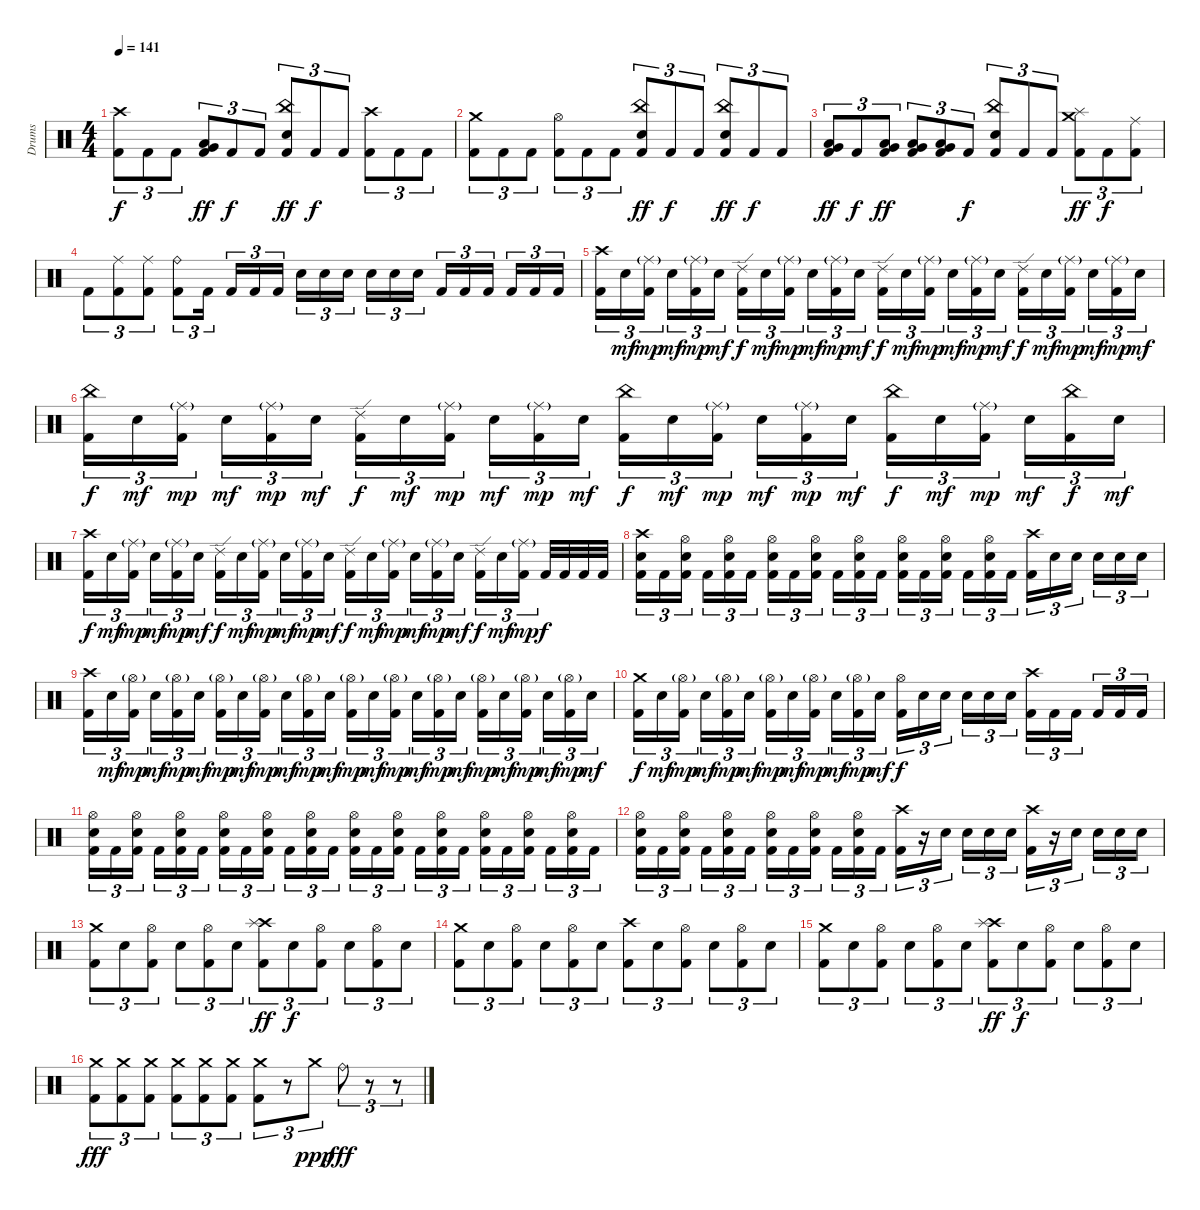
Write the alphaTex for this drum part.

\track ("Drums" "Drums") {instrument percussion}
\staff {score}
\articulation defaults
\ts (4 4)
\tempo 141
\clef neutral
\ks c
("Crash high (hit)" "Kick (hit) 2").8{tu (3 2) dy f} "Kick (hit) 2".8{tu (3 2)} "Kick (hit) 2".8{tu (3 2)} ("Very Low Tom (hit)" "Low Tom (hit)" "Kick (hit) 2").8{tu (3 2) dy ff} "Kick (hit) 2".8{tu (3 2) dy f} "Kick (hit) 2".8{tu (3 2)} ("China (hit)" "Electric Snare (hit)" "Kick (hit) 2").8{tu (3 2) dy ff} "Kick (hit) 2".8{tu (3 2) dy f} "Kick (hit) 2".8{tu (3 2)} ("Crash high (hit)" "Kick (hit) 2").8{tu (3 2)} "Kick (hit) 2".8{tu (3 2)} "Kick (hit) 2".8{tu (3 2)} |
("Crash medium (hit)" "Kick (hit) 2").8{tu (3 2)} "Kick (hit) 2".8{tu (3 2)} "Kick (hit) 2".8{tu (3 2)} ("Hi-Hat (open)" "Kick (hit) 2").8{tu (3 2)} "Kick (hit) 2".8{tu (3 2)} "Kick (hit) 2".8{tu (3 2)} ("China (hit)" "Electric Snare (hit)" "Kick (hit) 2").8{tu (3 2) dy ff} "Kick (hit) 2".8{tu (3 2) dy f} "Kick (hit) 2".8{tu (3 2)} ("China (hit)" "Electric Snare (hit)" "Kick (hit) 2").8{tu (3 2) dy ff} "Kick (hit) 2".8{tu (3 2) dy f} "Kick (hit) 2".8{tu (3 2)} |
("Very Low Tom (hit)" "Low Tom (hit)" "Kick (hit) 2").8{tu (3 2) dy ff} "Kick (hit) 2".8{tu (3 2) dy f} ("Low Floor Tom (hit)" "Very Low Tom (hit)" "Kick (hit) 2").8{tu (3 2) dy ff} ("Low Floor Tom (hit)" "Very Low Tom (hit)" "Kick (hit) 2").8{tu (3 2)} ("Low Floor Tom (hit)" "Very Low Tom (hit)" "Kick (hit) 2").8{tu (3 2)} "Kick (hit) 2".8{tu (3 2) dy f} ("China (hit)" "Electric Snare (hit)" "Kick (hit) 2").8{tu (3 2)} "Kick (hit) 2".8{tu (3 2)} "Kick (hit) 2".8{tu (3 2)} ("Crash medium (hit)" "Splash (hit)" "Kick (hit) 2").8{tu (3 2) dy ff} "Kick (hit) 2".8{tu (3 2) dy f} ("Ride (middle)" "Kick (hit) 2").8{tu (3 2)} |
"Kick (hit) 2".8{tu (3 2)} ("Ride (middle)" "Kick (hit) 2").8{tu (3 2)} ("Ride (middle)" "Kick (hit) 2").8{tu (3 2)} ("Ride (bell)" "Kick (hit) 2").8{tu (3 2)} "Kick (hit) 2".16{tu (3 2)} "Kick (hit) 2".16{tu (3 2)} "Kick (hit) 2".16{tu (3 2)} "Kick (hit) 2".16{tu (3 2)} "Electric Snare (hit)".16{tu (3 2)} "Electric Snare (hit)".16{tu (3 2)} "Electric Snare (hit)".16{tu (3 2)} "Electric Snare (hit)".16{tu (3 2)} "Electric Snare (hit)".16{tu (3 2)} "Electric Snare (hit)".16{tu (3 2)} "Kick (hit) 2".16{tu (3 2)} "Kick (hit) 2".16{tu (3 2)} "Kick (hit) 2".16{tu (3 2)} "Kick (hit) 2".16{tu (3 2)} "Kick (hit) 2".16{tu (3 2)} "Kick (hit) 2".16{tu (3 2)} |
("Crash high (hit)" "Kick (hit) 2").16{tu (3 2)} "Electric Snare (hit)".16{tu (3 2) dy mf} ("Ride (middle)"{g} "Kick (hit) 2").16{tu (3 2) dy mp} "Electric Snare (hit)".16{tu (3 2) dy mf} ("Ride (middle)"{g} "Kick (hit) 2").16{tu (3 2) dy mp} "Electric Snare (hit)".16{tu (3 2) dy mf} ("Ride (edge) 2" "Kick (hit) 2").16{tu (3 2) dy f} "Electric Snare (hit)".16{tu (3 2) dy mf} ("Ride (middle)"{g} "Kick (hit) 2").16{tu (3 2) dy mp} "Electric Snare (hit)".16{tu (3 2) dy mf} ("Ride (middle)"{g} "Kick (hit) 2").16{tu (3 2) dy mp} "Electric Snare (hit)".16{tu (3 2) dy mf} ("Ride (edge) 2" "Kick (hit) 2").16{tu (3 2) dy f} "Electric Snare (hit)".16{tu (3 2) dy mf} ("Ride (middle)"{g} "Kick (hit) 2").16{tu (3 2) dy mp} "Electric Snare (hit)".16{tu (3 2) dy mf} ("Ride (middle)"{g} "Kick (hit) 2").16{tu (3 2) dy mp} "Electric Snare (hit)".16{tu (3 2) dy mf} ("Ride (edge) 2" "Kick (hit) 2").16{tu (3 2) dy f} "Electric Snare (hit)".16{tu (3 2) dy mf} ("Ride (middle)"{g} "Kick (hit) 2").16{tu (3 2) dy mp} "Electric Snare (hit)".16{tu (3 2) dy mf} ("Ride (middle)"{g} "Kick (hit) 2").16{tu (3 2) dy mp} "Electric Snare (hit)".16{tu (3 2) dy mf} |
("China (hit)" "Kick (hit) 2").16{tu (3 2) dy f} "Electric Snare (hit)".16{tu (3 2) dy mf} ("Ride (middle)"{g} "Kick (hit) 2").16{tu (3 2) dy mp} "Electric Snare (hit)".16{tu (3 2) dy mf} ("Ride (middle)"{g} "Kick (hit) 2").16{tu (3 2) dy mp} "Electric Snare (hit)".16{tu (3 2) dy mf} ("Ride (edge) 2" "Kick (hit) 2").16{tu (3 2) dy f} "Electric Snare (hit)".16{tu (3 2) dy mf} ("Ride (middle)"{g} "Kick (hit) 2").16{tu (3 2) dy mp} "Electric Snare (hit)".16{tu (3 2) dy mf} ("Ride (middle)"{g} "Kick (hit) 2").16{tu (3 2) dy mp} "Electric Snare (hit)".16{tu (3 2) dy mf} ("China (hit)" "Kick (hit) 2").16{tu (3 2) dy f} "Electric Snare (hit)".16{tu (3 2) dy mf} ("Ride (middle)"{g} "Kick (hit) 2").16{tu (3 2) dy mp} "Electric Snare (hit)".16{tu (3 2) dy mf} ("Ride (middle)"{g} "Kick (hit) 2").16{tu (3 2) dy mp} "Electric Snare (hit)".16{tu (3 2) dy mf} ("China (hit)" "Kick (hit) 2").16{tu (3 2) dy f} "Electric Snare (hit)".16{tu (3 2) dy mf} ("Ride (middle)"{g} "Kick (hit) 2").16{tu (3 2) dy mp} "Electric Snare (hit)".16{tu (3 2) dy mf} ("China (hit)" "Kick (hit) 2").16{tu (3 2) dy f} "Electric Snare (hit)".16{tu (3 2) dy mf} |
("Crash high (hit)" "Kick (hit) 2").16{tu (3 2) dy f} "Electric Snare (hit)".16{tu (3 2) dy mf} ("Ride (middle)"{g} "Kick (hit) 2").16{tu (3 2) dy mp} "Electric Snare (hit)".16{tu (3 2) dy mf} ("Ride (middle)"{g} "Kick (hit) 2").16{tu (3 2) dy mp} "Electric Snare (hit)".16{tu (3 2) dy mf} ("Ride (edge) 2" "Kick (hit) 2").16{tu (3 2) dy f} "Electric Snare (hit)".16{tu (3 2) dy mf} ("Ride (middle)"{g} "Kick (hit) 2").16{tu (3 2) dy mp} "Electric Snare (hit)".16{tu (3 2) dy mf} ("Ride (middle)"{g} "Kick (hit) 2").16{tu (3 2) dy mp} "Electric Snare (hit)".16{tu (3 2) dy mf} ("Ride (edge) 2" "Kick (hit) 2").16{tu (3 2) dy f} "Electric Snare (hit)".16{tu (3 2) dy mf} ("Ride (middle)"{g} "Kick (hit) 2").16{tu (3 2) dy mp} "Electric Snare (hit)".16{tu (3 2) dy mf} ("Ride (middle)"{g} "Kick (hit) 2").16{tu (3 2) dy mp} "Electric Snare (hit)".16{tu (3 2) dy mf} ("Ride (edge) 2" "Kick (hit) 2").16{tu (3 2) dy f} "Electric Snare (hit)".16{tu (3 2) dy mf} ("Ride (middle)"{g} "Kick (hit) 2").16{tu (3 2) dy mp} "Kick (hit) 2".32{dy f} "Kick (hit) 2".32 "Kick (hit) 2".32 "Kick (hit) 2".32 |
("Crash high (hit)" "Electric Snare (hit)" "Kick (hit) 2").16{tu (3 2)} "Kick (hit) 2".16{tu (3 2)} ("Hi-Hat (open)" "Electric Snare (hit)" "Kick (hit) 2").16{tu (3 2)} "Kick (hit) 2".16{tu (3 2)} ("Hi-Hat (open)" "Electric Snare (hit)" "Kick (hit) 2").16{tu (3 2)} "Kick (hit) 2".16{tu (3 2)} ("Hi-Hat (open)" "Electric Snare (hit)" "Kick (hit) 2").16{tu (3 2)} "Kick (hit) 2".16{tu (3 2)} ("Hi-Hat (open)" "Electric Snare (hit)" "Kick (hit) 2").16{tu (3 2)} "Kick (hit) 2".16{tu (3 2)} ("Hi-Hat (open)" "Electric Snare (hit)" "Kick (hit) 2").16{tu (3 2)} "Kick (hit) 2".16{tu (3 2)} ("Hi-Hat (open)" "Electric Snare (hit)" "Kick (hit) 2").16{tu (3 2)} "Kick (hit) 2".16{tu (3 2)} ("Hi-Hat (open)" "Electric Snare (hit)" "Kick (hit) 2").16{tu (3 2)} "Kick (hit) 2".16{tu (3 2)} ("Hi-Hat (open)" "Electric Snare (hit)" "Kick (hit) 2").16{tu (3 2)} "Kick (hit) 2".16{tu (3 2)} ("Crash high (hit)" "Kick (hit) 2").16{tu (3 2)} "Electric Snare (hit)".16{tu (3 2)} "Electric Snare (hit)".16{tu (3 2)} "Electric Snare (hit)".16{tu (3 2)} "Electric Snare (hit)".16{tu (3 2)} "Electric Snare (hit)".16{tu (3 2)} |
("Crash high (hit)" "Kick (hit) 2").16{tu (3 2)} "Electric Snare (hit)".16{tu (3 2) dy mf} ("Hi-Hat (open)"{g} "Kick (hit) 2").16{tu (3 2) dy mp} "Electric Snare (hit)".16{tu (3 2) dy mf} ("Hi-Hat (open)"{g} "Kick (hit) 2").16{tu (3 2) dy mp} "Electric Snare (hit)".16{tu (3 2) dy mf} ("Hi-Hat (open)"{g} "Kick (hit) 2").16{tu (3 2) dy mp} "Electric Snare (hit)".16{tu (3 2) dy mf} ("Hi-Hat (open)"{g} "Kick (hit) 2").16{tu (3 2) dy mp} "Electric Snare (hit)".16{tu (3 2) dy mf} ("Hi-Hat (open)"{g} "Kick (hit) 2").16{tu (3 2) dy mp} "Electric Snare (hit)".16{tu (3 2) dy mf} ("Hi-Hat (open)"{g} "Kick (hit) 2").16{tu (3 2) dy mp} "Electric Snare (hit)".16{tu (3 2) dy mf} ("Hi-Hat (open)"{g} "Kick (hit) 2").16{tu (3 2) dy mp} "Electric Snare (hit)".16{tu (3 2) dy mf} ("Hi-Hat (open)"{g} "Kick (hit) 2").16{tu (3 2) dy mp} "Electric Snare (hit)".16{tu (3 2) dy mf} ("Hi-Hat (open)"{g} "Kick (hit) 2").16{tu (3 2) dy mp} "Electric Snare (hit)".16{tu (3 2) dy mf} ("Hi-Hat (open)"{g} "Kick (hit) 2").16{tu (3 2) dy mp} "Electric Snare (hit)".16{tu (3 2) dy mf} ("Hi-Hat (open)"{g} "Kick (hit) 2").16{tu (3 2) dy mp} "Electric Snare (hit)".16{tu (3 2) dy mf} |
("Crash medium (hit)" "Kick (hit) 2").16{tu (3 2) dy f} "Electric Snare (hit)".16{tu (3 2) dy mf} ("Hi-Hat (open)"{g} "Kick (hit) 2").16{tu (3 2) dy mp} "Electric Snare (hit)".16{tu (3 2) dy mf} ("Hi-Hat (open)"{g} "Kick (hit) 2").16{tu (3 2) dy mp} "Electric Snare (hit)".16{tu (3 2) dy mf} ("Hi-Hat (open)"{g} "Kick (hit) 2").16{tu (3 2) dy mp} "Electric Snare (hit)".16{tu (3 2) dy mf} ("Hi-Hat (open)"{g} "Kick (hit) 2").16{tu (3 2) dy mp} "Electric Snare (hit)".16{tu (3 2) dy mf} ("Hi-Hat (open)"{g} "Kick (hit) 2").16{tu (3 2) dy mp} "Electric Snare (hit)".16{tu (3 2) dy mf} ("Hi-Hat (open)" "Kick (hit) 2").16{tu (3 2) dy f} "Electric Snare (hit)".16{tu (3 2)} "Electric Snare (hit)".16{tu (3 2)} "Electric Snare (hit)".16{tu (3 2)} "Electric Snare (hit)".16{tu (3 2)} "Electric Snare (hit)".16{tu (3 2)} ("Crash high (hit)" "Kick (hit) 2").16{tu (3 2)} "Kick (hit) 2".16{tu (3 2)} "Kick (hit) 2".16{tu (3 2)} "Kick (hit) 2".16{tu (3 2)} "Kick (hit) 2".16{tu (3 2)} "Kick (hit) 2".16{tu (3 2)} |
("Hi-Hat (open)" "Electric Snare (hit)" "Kick (hit) 2").16{tu (3 2)} "Kick (hit) 2".16{tu (3 2)} ("Hi-Hat (open)" "Electric Snare (hit)" "Kick (hit) 2").16{tu (3 2)} "Kick (hit) 2".16{tu (3 2)} ("Hi-Hat (open)" "Electric Snare (hit)" "Kick (hit) 2").16{tu (3 2)} "Kick (hit) 2".16{tu (3 2)} ("Hi-Hat (open)" "Electric Snare (hit)" "Kick (hit) 2").16{tu (3 2)} "Kick (hit) 2".16{tu (3 2)} ("Hi-Hat (open)" "Electric Snare (hit)" "Kick (hit) 2").16{tu (3 2)} "Kick (hit) 2".16{tu (3 2)} ("Hi-Hat (open)" "Electric Snare (hit)" "Kick (hit) 2").16{tu (3 2)} "Kick (hit) 2".16{tu (3 2)} ("Hi-Hat (open)" "Electric Snare (hit)" "Kick (hit) 2").16{tu (3 2)} "Kick (hit) 2".16{tu (3 2)} ("Hi-Hat (open)" "Electric Snare (hit)" "Kick (hit) 2").16{tu (3 2)} "Kick (hit) 2".16{tu (3 2)} ("Hi-Hat (open)" "Electric Snare (hit)" "Kick (hit) 2").16{tu (3 2)} "Kick (hit) 2".16{tu (3 2)} ("Hi-Hat (open)" "Electric Snare (hit)" "Kick (hit) 2").16{tu (3 2)} "Kick (hit) 2".16{tu (3 2)} ("Hi-Hat (open)" "Electric Snare (hit)" "Kick (hit) 2").16{tu (3 2)} "Kick (hit) 2".16{tu (3 2)} ("Hi-Hat (open)" "Electric Snare (hit)" "Kick (hit) 2").16{tu (3 2)} "Kick (hit) 2".16{tu (3 2)} |
("Hi-Hat (open)" "Electric Snare (hit)" "Kick (hit) 2").16{tu (3 2)} "Kick (hit) 2".16{tu (3 2)} ("Hi-Hat (open)" "Electric Snare (hit)" "Kick (hit) 2").16{tu (3 2)} "Kick (hit) 2".16{tu (3 2)} ("Hi-Hat (open)" "Electric Snare (hit)" "Kick (hit) 2").16{tu (3 2)} "Kick (hit) 2".16{tu (3 2)} ("Hi-Hat (open)" "Electric Snare (hit)" "Kick (hit) 2").16{tu (3 2)} "Kick (hit) 2".16{tu (3 2)} ("Hi-Hat (open)" "Electric Snare (hit)" "Kick (hit) 2").16{tu (3 2)} "Kick (hit) 2".16{tu (3 2)} ("Hi-Hat (open)" "Electric Snare (hit)" "Kick (hit) 2").16{tu (3 2)} "Kick (hit) 2".16{tu (3 2)} ("Crash high (hit)" "Kick (hit) 2").16{tu (3 2)} r.16{tu (3 2)} "Electric Snare (hit)".16{tu (3 2)} "Electric Snare (hit)".16{tu (3 2)} "Electric Snare (hit)".16{tu (3 2)} "Electric Snare (hit)".16{tu (3 2)} ("Crash high (hit)" "Kick (hit) 2").16{tu (3 2)} r.16{tu (3 2)} "Electric Snare (hit)".16{tu (3 2)} "Electric Snare (hit)".16{tu (3 2)} "Electric Snare (hit)".16{tu (3 2)} "Electric Snare (hit)".16{tu (3 2)} |
("Crash medium (hit)" "Kick (hit) 2").8{tu (3 2)} "Electric Snare (hit)".8{tu (3 2)} ("Hi-Hat (open)" "Kick (hit) 2").8{tu (3 2)} "Electric Snare (hit)".8{tu (3 2)} ("Hi-Hat (open)" "Kick (hit) 2").8{tu (3 2)} "Electric Snare (hit)".8{tu (3 2)} ("Crash high (hit)" "Splash (hit)" "Kick (hit) 2").8{tu (3 2) dy ff} "Electric Snare (hit)".8{tu (3 2) dy f} ("Hi-Hat (open)" "Kick (hit) 2").8{tu (3 2)} "Electric Snare (hit)".8{tu (3 2)} ("Hi-Hat (open)" "Kick (hit) 2").8{tu (3 2)} "Electric Snare (hit)".8{tu (3 2)} |
("Crash medium (hit)" "Kick (hit) 2").8{tu (3 2)} "Electric Snare (hit)".8{tu (3 2)} ("Hi-Hat (open)" "Kick (hit) 2").8{tu (3 2)} "Electric Snare (hit)".8{tu (3 2)} ("Hi-Hat (open)" "Kick (hit) 2").8{tu (3 2)} "Electric Snare (hit)".8{tu (3 2)} ("Crash high (hit)" "Kick (hit) 2").8{tu (3 2)} "Electric Snare (hit)".8{tu (3 2)} ("Hi-Hat (open)" "Kick (hit) 2").8{tu (3 2)} "Electric Snare (hit)".8{tu (3 2)} ("Hi-Hat (open)" "Kick (hit) 2").8{tu (3 2)} "Electric Snare (hit)".8{tu (3 2)} |
("Crash medium (hit)" "Kick (hit) 2").8{tu (3 2)} "Electric Snare (hit)".8{tu (3 2)} ("Hi-Hat (open)" "Kick (hit) 2").8{tu (3 2)} "Electric Snare (hit)".8{tu (3 2)} ("Hi-Hat (open)" "Kick (hit) 2").8{tu (3 2)} "Electric Snare (hit)".8{tu (3 2)} ("Crash high (hit)" "Splash (hit)" "Kick (hit) 2").8{tu (3 2) dy ff} "Electric Snare (hit)".8{tu (3 2) dy f} ("Hi-Hat (open)" "Kick (hit) 2").8{tu (3 2)} "Electric Snare (hit)".8{tu (3 2)} ("Hi-Hat (open)" "Kick (hit) 2").8{tu (3 2)} "Electric Snare (hit)".8{tu (3 2)} |
("Crash medium (hit)" "Kick (hit) 2").8{tu (3 2) dy fff} ("Crash medium (hit)" "Kick (hit) 2").8{tu (3 2)} ("Crash medium (hit)" "Kick (hit) 2").8{tu (3 2)} ("Crash medium (hit)" "Kick (hit) 2").8{tu (3 2)} ("Crash medium (hit)" "Kick (hit) 2").8{tu (3 2)} ("Crash medium (hit)" "Kick (hit) 2").8{tu (3 2)} ("Crash medium (hit)" "Kick (hit) 2").8{tu (3 2)} r.8{tu (3 2)} "Crash medium (hit)".8{tu (3 2) dy ppp} "Ride (bell)".8{tu (3 2) dy fff} r.8{tu (3 2)} r.8{tu (3 2)}
